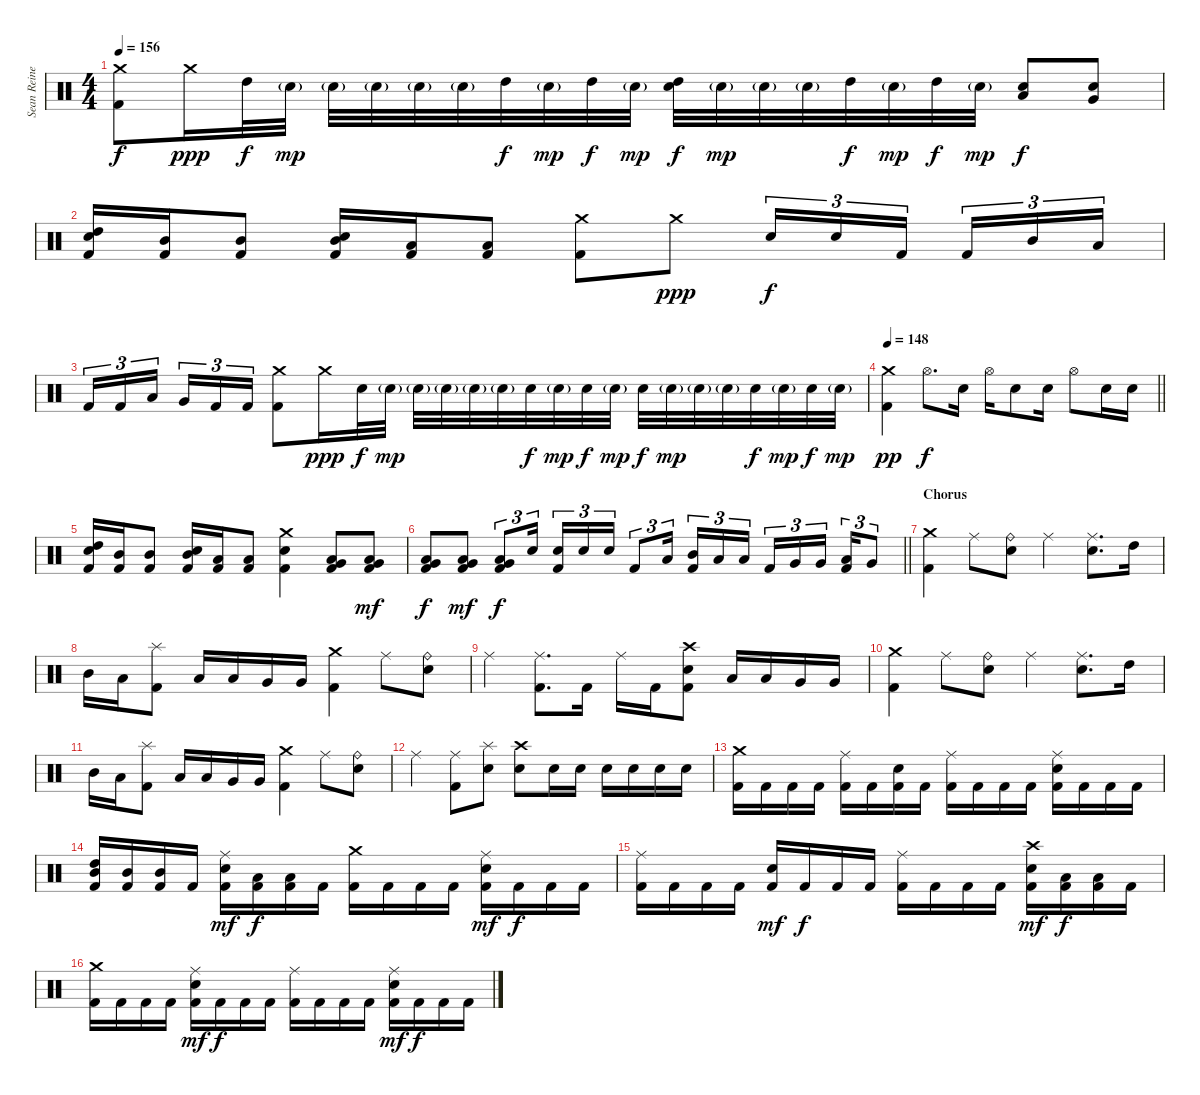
\track ("Sean Reinert" "Sean Reine") {instrument percussion}
\staff {score}
\articulation defaults
\ts (4 4)
\tempo 156
\clef neutral
\ks c
("Crash medium (hit)" "Kick (hit) 2").8{dy f} "Crash medium (hit)".16{dy ppp} "High Tom (hit)".32{dy f} "Snare (hit) 2"{g}.32{dy mp} "Snare (hit) 2"{g}.32 "Snare (hit) 2"{g}.32 "Snare (hit) 2"{g}.32 "Snare (hit) 2"{g}.32 "High Tom (hit)".32{dy f} "Snare (hit) 2"{g}.32{dy mp} "High Tom (hit)".32{dy f} "Snare (hit) 2"{g}.32{dy mp} ("High Tom (hit)" "Snare (hit) 2").32{dy f} "Snare (hit) 2"{g}.32{dy mp} "Snare (hit) 2"{g}.32 "Snare (hit) 2"{g}.32 "High Tom (hit)".32{dy f} "Snare (hit) 2"{g}.32{dy mp} "High Tom (hit)".32{dy f} "Snare (hit) 2"{g}.32{dy mp} ("Low Tom (hit)" "Snare (hit) 2").8{dy f} ("Very Low Tom (hit)" "Snare (hit) 2").8 |
("High Tom (hit)" "Snare (hit) 2" "Kick (hit) 2").16 ("Mid Tom (hit)" "Kick (hit) 2").16 ("Mid Tom (hit)" "Kick (hit) 2").8 ("Mid Tom (hit)" "Snare (hit) 2" "Kick (hit) 2").16 ("Low Tom (hit)" "Kick (hit) 2").16 ("Low Tom (hit)" "Kick (hit) 2").8 ("Crash medium (hit)" "Kick (hit) 2").8 "Crash medium (hit)".8{dy ppp} "Snare (hit) 2".16{tu (3 2) dy f} "Snare (hit) 2".16{tu (3 2)} "Kick (hit) 2".16{tu (3 2) beam splitsecondary} "Kick (hit) 2".16{tu (3 2)} "Mid Tom (hit)".16{tu (3 2)} "Low Tom (hit)".16{tu (3 2)} |
"Kick (hit) 2".16{tu (3 2)} "Kick (hit) 2".16{tu (3 2)} "Low Floor Tom (hit)".16{tu (3 2) beam splitsecondary} "Very Low Tom (hit)".16{tu (3 2)} "Kick (hit) 2".16{tu (3 2)} "Kick (hit) 2".16{tu (3 2)} ("Crash medium (hit)" "Kick (hit) 2").8 "Crash medium (hit)".16{dy ppp} "Snare (hit) 2".32{dy f} "Snare (hit) 2"{g}.32{dy mp} "Snare (hit) 2"{g}.32 "Snare (hit) 2"{g}.32 "Snare (hit) 2"{g}.32 "Snare (hit) 2"{g}.32 "Snare (hit) 2".32{dy f} "Snare (hit) 2"{g}.32{dy mp} "Snare (hit) 2".32{dy f} "Snare (hit) 2"{g}.32{dy mp} "Snare (hit) 2".32{dy f} "Snare (hit) 2"{g}.32{dy mp} "Snare (hit) 2"{g}.32 "Snare (hit) 2"{g}.32 "Snare (hit) 2".32{dy f} "Snare (hit) 2"{g}.32{dy mp} "Snare (hit) 2".32{dy f} "Snare (hit) 2"{g}.32{dy mp} |
\tempo 148
\barLineRight lightlight
("Crash medium (hit)" "Kick (hit) 2").4{dy pp} "Hi-Hat (open)".8{d dy f} "Snare (hit) 2".16 "Hi-Hat (open)".16 "Snare (hit) 2".8 "Snare (hit) 2".16 "Hi-Hat (open)".8 "Snare (hit) 2".16 "Snare (hit) 2".16 |
("High Tom (hit)" "Snare (hit) 2" "Kick (hit) 2").16 ("Mid Tom (hit)" "Kick (hit) 2").16 ("Mid Tom (hit)" "Kick (hit) 2").8 ("Mid Tom (hit)" "Snare (hit) 2" "Kick (hit) 2").16 ("Low Tom (hit)" "Kick (hit) 2").16 ("Low Tom (hit)" "Kick (hit) 2").8 ("Crash medium (hit)" "Snare (hit) 2" "Kick (hit) 2").4 ("Very Low Tom (hit)" "Low Floor Tom (hit)" "Kick (hit) 2").8 ("Very Low Tom (hit)" "Low Floor Tom (hit)" "Kick (hit) 2").8{dy mf} |
\barLineRight lightlight
("Low Floor Tom (hit)" "Very Low Tom (hit)" "Kick (hit) 2").8{dy f} ("Low Floor Tom (hit)" "Very Low Tom (hit)" "Kick (hit) 2").8{dy mf} ("Low Floor Tom (hit)" "Very Low Tom (hit)" "Kick (hit) 2").8{tu (3 2) dy f} "Snare (hit) 2".16{tu (3 2) beam splitsecondary} ("Snare (hit) 2" "Kick (hit) 2").16{tu (3 2)} "Snare (hit) 2".16{tu (3 2)} "Snare (hit) 2".16{tu (3 2)} "Kick (hit) 2".8{tu (3 2)} "Low Tom (hit)".16{tu (3 2) beam splitsecondary} ("Mid Tom (hit)" "Kick (hit) 2").16{tu (3 2)} "Low Tom (hit)".16{tu (3 2)} "Low Tom (hit)".16{tu (3 2)} "Kick (hit) 2".16{tu (3 2)} "Very Low Tom (hit)".16{tu (3 2)} "Very Low Tom (hit)".16{tu (3 2) beam splitsecondary} ("Low Tom (hit)" "Kick (hit) 2").16{tu (3 2)} "Very Low Tom (hit)".8{tu (3 2)} |
\section ("" "Chorus")
("Crash medium (hit)" "Kick (hit) 2").4 "Ride (middle)".8 ("Ride (bell)" "Snare (hit) 2").8 "Ride (middle)".4 ("Ride (middle)" "Snare (hit) 2").8{d} "High Tom (hit)".16 |
"Mid Tom (hit)".16 "Low Tom (hit)".16 ("Splash (hit)" "Kick (hit) 2").8 "Low Tom (hit)".16 "Low Tom (hit)".16 "Very Low Tom (hit)".16 "Very Low Tom (hit)".16 ("Crash medium (hit)" "Kick (hit) 2").4 "Ride (middle)".8 ("Ride (bell)" "Snare (hit) 2").8 |
"Ride (middle)".4 ("Ride (middle)" "Kick (hit) 2").8{d} "Kick (hit) 2".16 "Ride (middle)".16 "Kick (hit) 2".16 ("Crash high (hit)" "Snare (hit) 2" "Kick (hit) 2").8 "Low Tom (hit)".16 "Low Tom (hit)".16 "Very Low Tom (hit)".16 "Very Low Tom (hit)".16 |
("Crash medium (hit)" "Kick (hit) 2").4 "Ride (middle)".8 ("Ride (bell)" "Snare (hit) 2").8 "Ride (middle)".4 ("Ride (middle)" "Snare (hit) 2").8{d} "High Tom (hit)".16 |
"Mid Tom (hit)".16 "Low Tom (hit)".16 ("Splash (hit)" "Kick (hit) 2").8 "Low Tom (hit)".16 "Low Tom (hit)".16 "Very Low Tom (hit)".16 "Very Low Tom (hit)".16 ("Crash medium (hit)" "Kick (hit) 2").4 "Ride (middle)".8 ("Ride (bell)" "Snare (hit) 2").8 |
"Ride (middle)".4 ("Ride (middle)" "Kick (hit) 2").8 ("Splash (hit)" "Snare (hit) 2").8 ("Crash high (hit)" "Snare (hit) 2").8 "Snare (hit) 2".16 "Snare (hit) 2".16 "Snare (hit) 2".16 "Snare (hit) 2".16 "Snare (hit) 2".16 "Snare (hit) 2".16 |
("Crash medium (hit)" "Kick (hit) 2").16 "Kick (hit) 2".16 "Kick (hit) 2".16 "Kick (hit) 2".16 ("Ride (middle)" "Kick (hit) 2").16 "Kick (hit) 2".16 ("Snare (hit) 2" "Kick (hit) 2").16 "Kick (hit) 2".16 ("Ride (middle)" "Kick (hit) 2").16 "Kick (hit) 2".16 "Kick (hit) 2".16 "Kick (hit) 2".16 ("Ride (middle)" "Snare (hit) 2" "Kick (hit) 2").16 "Kick (hit) 2".16 "Kick (hit) 2".16 "Kick (hit) 2".16 |
("High Tom (hit)" "Mid Tom (hit)" "Kick (hit) 2").16 ("Mid Tom (hit)" "Kick (hit) 2").16 ("Mid Tom (hit)" "Kick (hit) 2").16 "Kick (hit) 2".16 ("Ride (middle)" "Snare (hit) 2" "Kick (hit) 2").16{dy mf} ("Low Tom (hit)" "Kick (hit) 2").16{dy f} ("Low Tom (hit)" "Kick (hit) 2").16 "Kick (hit) 2".16 ("Crash medium (hit)" "Kick (hit) 2").16 "Kick (hit) 2".16 "Kick (hit) 2".16 "Kick (hit) 2".16 ("Ride (middle)" "Snare (hit) 2" "Kick (hit) 2").16{dy mf} "Kick (hit) 2".16{dy f} "Kick (hit) 2".16 "Kick (hit) 2".16 |
("Ride (middle)" "Kick (hit) 2").16 "Kick (hit) 2".16 "Kick (hit) 2".16 "Kick (hit) 2".16 ("Snare (hit) 2" "Kick (hit) 2").16{dy mf} "Kick (hit) 2".16{dy f} "Kick (hit) 2".16 "Kick (hit) 2".16 ("Ride (middle)" "Kick (hit) 2").16 "Kick (hit) 2".16 "Kick (hit) 2".16 "Kick (hit) 2".16 ("Crash high (hit)" "Snare (hit) 2" "Kick (hit) 2").16{dy mf} ("Low Tom (hit)" "Kick (hit) 2").16{dy f} ("Low Tom (hit)" "Kick (hit) 2").16 "Kick (hit) 2".16 |
("Crash medium (hit)" "Kick (hit) 2").16 "Kick (hit) 2".16 "Kick (hit) 2".16 "Kick (hit) 2".16 ("Ride (middle)" "Snare (hit) 2" "Kick (hit) 2").16{dy mf} "Kick (hit) 2".16{dy f} "Kick (hit) 2".16 "Kick (hit) 2".16 ("Ride (middle)" "Kick (hit) 2").16 "Kick (hit) 2".16 "Kick (hit) 2".16 "Kick (hit) 2".16 ("Ride (middle)" "Snare (hit) 2" "Kick (hit) 2").16{dy mf} "Kick (hit) 2".16{dy f} "Kick (hit) 2".16 "Kick (hit) 2".16
